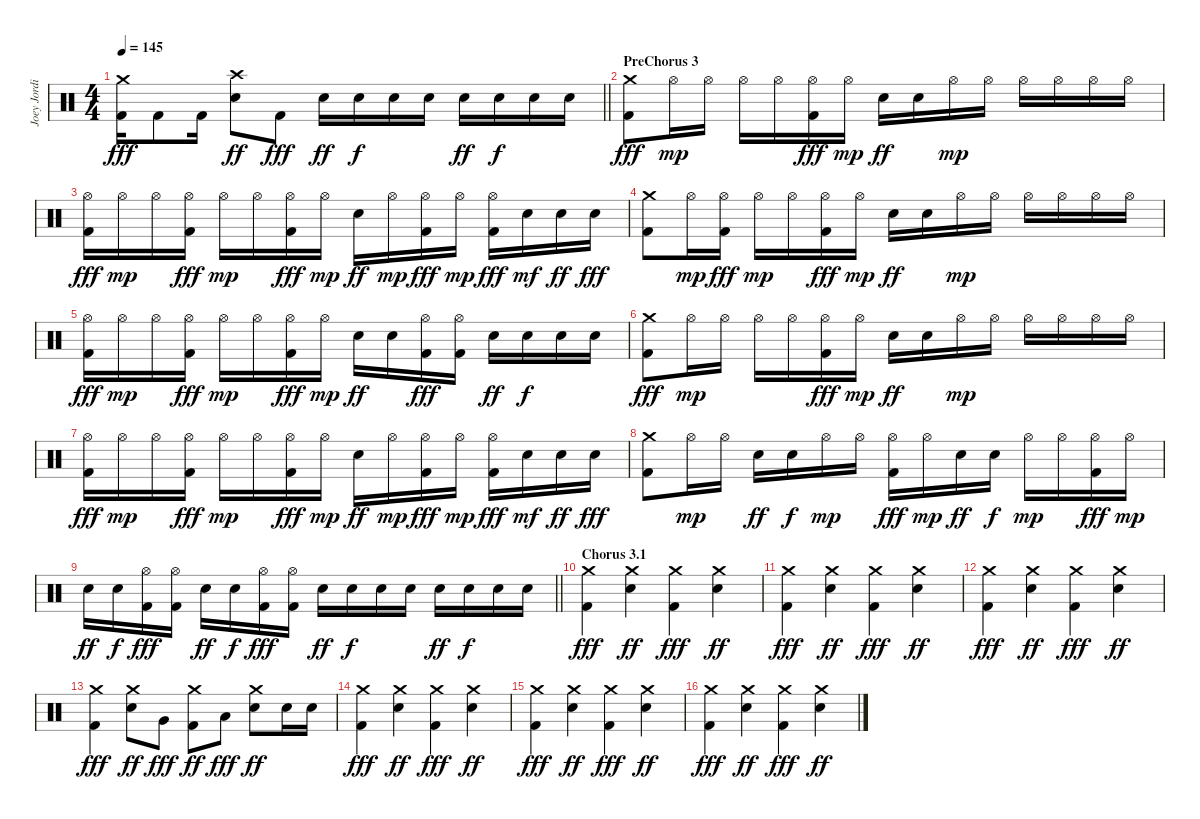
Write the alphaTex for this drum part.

\track ("Joey Jordison" "Joey Jordi") {instrument percussion}
\staff {score}
\articulation defaults
\ts (4 4)
\tempo 145
\clef neutral
\barLineRight lightlight
\ks c
("Crash medium (hit)" "Kick (hit) 2").16{dy fff} "Kick (hit) 2".8 "Kick (hit) 2".16 ("Crash high (hit)" "Electric Snare (hit)").8{dy ff} "Kick (hit) 2".8{dy fff} "Electric Snare (hit)".16{dy ff} "Electric Snare (hit)".16{dy f} "Electric Snare (hit)".16 "Electric Snare (hit)".16 "Electric Snare (hit)".16{dy ff} "Electric Snare (hit)".16{dy f} "Electric Snare (hit)".16 "Electric Snare (hit)".16 |
\section ("" "PreChorus 3")
("Crash medium (hit)" "Kick (hit) 2").8{dy fff} "Hi-Hat (open)".16{dy mp} "Hi-Hat (open)".16 "Hi-Hat (open)".16 "Hi-Hat (open)".16 ("Hi-Hat (open)" "Kick (hit) 2").16{dy fff} "Hi-Hat (open)".16{dy mp} "Electric Snare (hit)".16{dy ff} "Electric Snare (hit)".16 "Hi-Hat (open)".16{dy mp} "Hi-Hat (open)".16 "Hi-Hat (open)".16 "Hi-Hat (open)".16 "Hi-Hat (open)".16 "Hi-Hat (open)".16 |
("Hi-Hat (open)" "Kick (hit) 2").16{dy fff} "Hi-Hat (open)".16{dy mp} "Hi-Hat (open)".16 ("Hi-Hat (open)" "Kick (hit) 2").16{dy fff} "Hi-Hat (open)".16{dy mp} "Hi-Hat (open)".16 ("Hi-Hat (open)" "Kick (hit) 2").16{dy fff} "Hi-Hat (open)".16{dy mp} "Electric Snare (hit)".16{dy ff} "Hi-Hat (open)".16{dy mp} ("Hi-Hat (open)" "Kick (hit) 2").16{dy fff} "Hi-Hat (open)".16{dy mp} ("Hi-Hat (open)" "Kick (hit) 2").16{dy fff} "Electric Snare (hit)".16{dy mf} "Electric Snare (hit)".16{dy ff} "Electric Snare (hit)".16{dy fff} |
("Crash medium (hit)" "Kick (hit) 2").8 "Hi-Hat (open)".16{dy mp} ("Hi-Hat (open)" "Kick (hit) 2").16{dy fff} "Hi-Hat (open)".16{dy mp} "Hi-Hat (open)".16 ("Hi-Hat (open)" "Kick (hit) 2").16{dy fff} "Hi-Hat (open)".16{dy mp} "Electric Snare (hit)".16{dy ff} "Electric Snare (hit)".16 "Hi-Hat (open)".16{dy mp} "Hi-Hat (open)".16 "Hi-Hat (open)".16 "Hi-Hat (open)".16 "Hi-Hat (open)".16 "Hi-Hat (open)".16 |
("Hi-Hat (open)" "Kick (hit) 2").16{dy fff} "Hi-Hat (open)".16{dy mp} "Hi-Hat (open)".16 ("Hi-Hat (open)" "Kick (hit) 2").16{dy fff} "Hi-Hat (open)".16{dy mp} "Hi-Hat (open)".16 ("Hi-Hat (open)" "Kick (hit) 2").16{dy fff} "Hi-Hat (open)".16{dy mp} "Electric Snare (hit)".16{dy ff} "Electric Snare (hit)".16 ("Hi-Hat (open)" "Kick (hit) 2").16{dy fff} ("Hi-Hat (open)" "Kick (hit) 2").16 "Electric Snare (hit)".16{dy ff} "Electric Snare (hit)".16{dy f} "Electric Snare (hit)".16 "Electric Snare (hit)".16 |
("Crash medium (hit)" "Kick (hit) 2").8{dy fff} "Hi-Hat (open)".16{dy mp} "Hi-Hat (open)".16 "Hi-Hat (open)".16 "Hi-Hat (open)".16 ("Hi-Hat (open)" "Kick (hit) 2").16{dy fff} "Hi-Hat (open)".16{dy mp} "Electric Snare (hit)".16{dy ff} "Electric Snare (hit)".16 "Hi-Hat (open)".16{dy mp} "Hi-Hat (open)".16 "Hi-Hat (open)".16 "Hi-Hat (open)".16 "Hi-Hat (open)".16 "Hi-Hat (open)".16 |
("Hi-Hat (open)" "Kick (hit) 2").16{dy fff} "Hi-Hat (open)".16{dy mp} "Hi-Hat (open)".16 ("Hi-Hat (open)" "Kick (hit) 2").16{dy fff} "Hi-Hat (open)".16{dy mp} "Hi-Hat (open)".16 ("Hi-Hat (open)" "Kick (hit) 2").16{dy fff} "Hi-Hat (open)".16{dy mp} "Electric Snare (hit)".16{dy ff} "Hi-Hat (open)".16{dy mp} ("Hi-Hat (open)" "Kick (hit) 2").16{dy fff} "Hi-Hat (open)".16{dy mp} ("Hi-Hat (open)" "Kick (hit) 2").16{dy fff} "Electric Snare (hit)".16{dy mf} "Electric Snare (hit)".16{dy ff} "Electric Snare (hit)".16{dy fff} |
("Crash medium (hit)" "Kick (hit) 2").8 "Hi-Hat (open)".16{dy mp} "Hi-Hat (open)".16 "Electric Snare (hit)".16{dy ff} "Electric Snare (hit)".16{dy f} "Hi-Hat (open)".16{dy mp} "Hi-Hat (open)".16 ("Hi-Hat (open)" "Kick (hit) 2").16{dy fff} "Hi-Hat (open)".16{dy mp} "Electric Snare (hit)".16{dy ff} "Electric Snare (hit)".16{dy f} "Hi-Hat (open)".16{dy mp} "Hi-Hat (open)".16 ("Hi-Hat (open)" "Kick (hit) 2").16{dy fff} "Hi-Hat (open)".16{dy mp} |
\barLineRight lightlight "Electric Snare (hit)".16{dy ff} "Electric Snare (hit)".16{dy f}
("Hi-Hat (open)" "Kick (hit) 2").16{dy fff} ("Hi-Hat (open)" "Kick (hit) 2").16 "Electric Snare (hit)".16{dy ff} "Electric Snare (hit)".16{dy f} ("Hi-Hat (open)" "Kick (hit) 2").16{dy fff} ("Hi-Hat (open)" "Kick (hit) 2").16 "Electric Snare (hit)".16{dy ff} "Electric Snare (hit)".16{dy f} "Electric Snare (hit)".16 "Electric Snare (hit)".16 "Electric Snare (hit)".16{dy ff} "Electric Snare (hit)".16{dy f} "Electric Snare (hit)".16 "Electric Snare (hit)".16 |
\section ("" "Chorus 3.1")
("Crash medium (hit)" "Kick (hit) 2").4{dy fff} ("Crash medium (hit)" "Electric Snare (hit)").4{dy ff} ("Crash medium (hit)" "Kick (hit) 2").4{dy fff} ("Crash medium (hit)" "Electric Snare (hit)").4{dy ff} |
("Crash medium (hit)" "Kick (hit) 2").4{dy fff} ("Crash medium (hit)" "Electric Snare (hit)").4{dy ff} ("Crash medium (hit)" "Kick (hit) 2").4{dy fff} ("Crash medium (hit)" "Electric Snare (hit)").4{dy ff} |
("Crash medium (hit)" "Kick (hit) 2").4{dy fff} ("Crash medium (hit)" "Electric Snare (hit)").4{dy ff} ("Crash medium (hit)" "Kick (hit) 2").4{dy fff} ("Crash medium (hit)" "Electric Snare (hit)").4{dy ff} |
("Crash medium (hit)" "Kick (hit) 2").4{dy fff} ("Crash medium (hit)" "Electric Snare (hit)").8{dy ff} "Very Low Tom (hit)".8{dy fff} ("Crash medium (hit)" "Kick (hit) 2").8{dy ff} "Low Floor Tom (hit)".8{dy fff} ("Crash medium (hit)" "Electric Snare (hit)").8{dy ff} "Electric Snare (hit)".16 "Electric Snare (hit)".16 |
("Crash medium (hit)" "Kick (hit) 2").4{dy fff} ("Crash medium (hit)" "Electric Snare (hit)").4{dy ff} ("Crash medium (hit)" "Kick (hit) 2").4{dy fff} ("Crash medium (hit)" "Electric Snare (hit)").4{dy ff} |
("Crash medium (hit)" "Kick (hit) 2").4{dy fff} ("Crash medium (hit)" "Electric Snare (hit)").4{dy ff} ("Crash medium (hit)" "Kick (hit) 2").4{dy fff} ("Crash medium (hit)" "Electric Snare (hit)").4{dy ff} |
("Crash medium (hit)" "Kick (hit) 2").4{dy fff} ("Crash medium (hit)" "Electric Snare (hit)").4{dy ff} ("Crash medium (hit)" "Kick (hit) 2").4{dy fff} ("Crash medium (hit)" "Electric Snare (hit)").4{dy ff}
